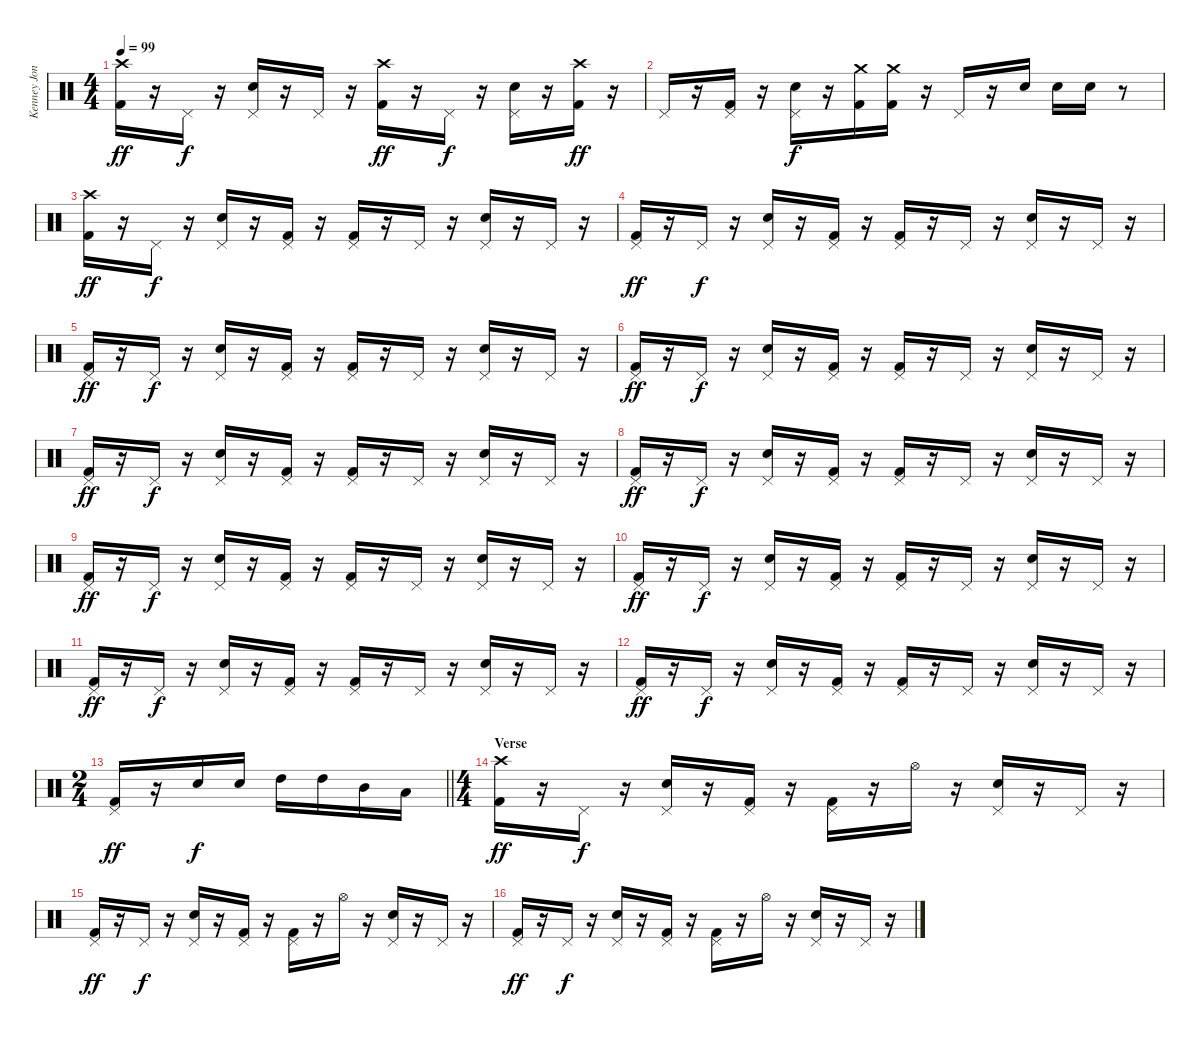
\track ("Kenney Jones" "Kenney Jon") {instrument percussion}
\staff {score}
\articulation defaults
\ts (4 4)
\tempo 99
\clef neutral
\ks c
("Crash high (hit)" "Kick (hit) 2").16{dy ff} r.16 "Pedal Hi-Hat (hit)".16{dy f} r.16 ("Pedal Hi-Hat (hit)" "Snare (hit) 2").16 r.16 "Pedal Hi-Hat (hit)".16 r.16 ("Crash high (hit)" "Kick (hit) 2").16{dy ff} r.16 "Pedal Hi-Hat (hit)".16{dy f} r.16 ("Pedal Hi-Hat (hit)" "Snare (hit) 2").16 r.16 ("Crash high (hit)" "Kick (hit) 2").16{dy ff} r.16 |
"Pedal Hi-Hat (hit)".16 r.16 ("Pedal Hi-Hat (hit)" "Kick (hit) 2").16 r.16 ("Pedal Hi-Hat (hit)" "Snare (hit) 2").16{dy f} r.16 ("Crash medium (hit)" "Kick (hit) 2").16 ("Crash medium (hit)" "Kick (hit) 2").16 r.16 "Pedal Hi-Hat (hit)".16 r.16 "Snare (hit) 2".16 "Snare (hit) 2".16 "Snare (hit) 2".16 r.8 |
("Crash high (hit)" "Kick (hit) 2").16{dy ff} r.16 "Pedal Hi-Hat (hit)".16{dy f} r.16 ("Pedal Hi-Hat (hit)" "Snare (hit) 2").16 r.16 ("Pedal Hi-Hat (hit)" "Kick (hit) 2").16 r.16 ("Pedal Hi-Hat (hit)" "Kick (hit) 2").16 r.16 "Pedal Hi-Hat (hit)".16 r.16 ("Pedal Hi-Hat (hit)" "Snare (hit) 2").16 r.16 "Pedal Hi-Hat (hit)".16 r.16 |
("Pedal Hi-Hat (hit)" "Kick (hit) 2").16{dy ff} r.16 "Pedal Hi-Hat (hit)".16{dy f} r.16 ("Pedal Hi-Hat (hit)" "Snare (hit) 2").16 r.16 ("Pedal Hi-Hat (hit)" "Kick (hit) 2").16 r.16 ("Pedal Hi-Hat (hit)" "Kick (hit) 2").16 r.16 "Pedal Hi-Hat (hit)".16 r.16 ("Pedal Hi-Hat (hit)" "Snare (hit) 2").16 r.16 "Pedal Hi-Hat (hit)".16 r.16 |
("Pedal Hi-Hat (hit)" "Kick (hit) 2").16{dy ff} r.16 "Pedal Hi-Hat (hit)".16{dy f} r.16 ("Pedal Hi-Hat (hit)" "Snare (hit) 2").16 r.16 ("Pedal Hi-Hat (hit)" "Kick (hit) 2").16 r.16 ("Pedal Hi-Hat (hit)" "Kick (hit) 2").16 r.16 "Pedal Hi-Hat (hit)".16 r.16 ("Pedal Hi-Hat (hit)" "Snare (hit) 2").16 r.16 "Pedal Hi-Hat (hit)".16 r.16 |
("Pedal Hi-Hat (hit)" "Kick (hit) 2").16{dy ff} r.16 "Pedal Hi-Hat (hit)".16{dy f} r.16 ("Pedal Hi-Hat (hit)" "Snare (hit) 2").16 r.16 ("Pedal Hi-Hat (hit)" "Kick (hit) 2").16 r.16 ("Pedal Hi-Hat (hit)" "Kick (hit) 2").16 r.16 "Pedal Hi-Hat (hit)".16 r.16 ("Pedal Hi-Hat (hit)" "Snare (hit) 2").16 r.16 "Pedal Hi-Hat (hit)".16 r.16 |
("Pedal Hi-Hat (hit)" "Kick (hit) 2").16{dy ff} r.16 "Pedal Hi-Hat (hit)".16{dy f} r.16 ("Pedal Hi-Hat (hit)" "Snare (hit) 2").16 r.16 ("Pedal Hi-Hat (hit)" "Kick (hit) 2").16 r.16 ("Pedal Hi-Hat (hit)" "Kick (hit) 2").16 r.16 "Pedal Hi-Hat (hit)".16 r.16 ("Pedal Hi-Hat (hit)" "Snare (hit) 2").16 r.16 "Pedal Hi-Hat (hit)".16 r.16 |
("Pedal Hi-Hat (hit)" "Kick (hit) 2").16{dy ff} r.16 "Pedal Hi-Hat (hit)".16{dy f} r.16 ("Pedal Hi-Hat (hit)" "Snare (hit) 2").16 r.16 ("Pedal Hi-Hat (hit)" "Kick (hit) 2").16 r.16 ("Pedal Hi-Hat (hit)" "Kick (hit) 2").16 r.16 "Pedal Hi-Hat (hit)".16 r.16 ("Pedal Hi-Hat (hit)" "Snare (hit) 2").16 r.16 "Pedal Hi-Hat (hit)".16 r.16 |
("Pedal Hi-Hat (hit)" "Kick (hit) 2").16{dy ff} r.16 "Pedal Hi-Hat (hit)".16{dy f} r.16 ("Pedal Hi-Hat (hit)" "Snare (hit) 2").16 r.16 ("Pedal Hi-Hat (hit)" "Kick (hit) 2").16 r.16 ("Pedal Hi-Hat (hit)" "Kick (hit) 2").16 r.16 "Pedal Hi-Hat (hit)".16 r.16 ("Pedal Hi-Hat (hit)" "Snare (hit) 2").16 r.16 "Pedal Hi-Hat (hit)".16 r.16 |
("Pedal Hi-Hat (hit)" "Kick (hit) 2").16{dy ff} r.16 "Pedal Hi-Hat (hit)".16{dy f} r.16 ("Pedal Hi-Hat (hit)" "Snare (hit) 2").16 r.16 ("Pedal Hi-Hat (hit)" "Kick (hit) 2").16 r.16 ("Pedal Hi-Hat (hit)" "Kick (hit) 2").16 r.16 "Pedal Hi-Hat (hit)".16 r.16 ("Pedal Hi-Hat (hit)" "Snare (hit) 2").16 r.16 "Pedal Hi-Hat (hit)".16 r.16 |
("Pedal Hi-Hat (hit)" "Kick (hit) 2").16{dy ff} r.16 "Pedal Hi-Hat (hit)".16{dy f} r.16 ("Pedal Hi-Hat (hit)" "Snare (hit) 2").16 r.16 ("Pedal Hi-Hat (hit)" "Kick (hit) 2").16 r.16 ("Pedal Hi-Hat (hit)" "Kick (hit) 2").16 r.16 "Pedal Hi-Hat (hit)".16 r.16 ("Pedal Hi-Hat (hit)" "Snare (hit) 2").16 r.16 "Pedal Hi-Hat (hit)".16 r.16 |
("Pedal Hi-Hat (hit)" "Kick (hit) 2").16{dy ff} r.16 "Pedal Hi-Hat (hit)".16{dy f} r.16 ("Pedal Hi-Hat (hit)" "Snare (hit) 2").16 r.16 ("Pedal Hi-Hat (hit)" "Kick (hit) 2").16 r.16 ("Pedal Hi-Hat (hit)" "Kick (hit) 2").16 r.16 "Pedal Hi-Hat (hit)".16 r.16 ("Pedal Hi-Hat (hit)" "Snare (hit) 2").16 r.16 "Pedal Hi-Hat (hit)".16 r.16 |
\ts (2 4)
\barLineRight lightlight
("Pedal Hi-Hat (hit)" "Kick (hit) 2").16{dy ff} r.16 "Snare (hit) 2".16{dy f} "Snare (hit) 2".16 "High Tom (hit)".16 "High Tom (hit)".16 "Mid Tom (hit)".16 "Low Tom (hit)".16 |
\ts (4 4)
\section ("" "Verse")
("Crash high (hit)" "Kick (hit) 2").16{dy ff} r.16 "Pedal Hi-Hat (hit)".16{dy f} r.16 ("Pedal Hi-Hat (hit)" "Snare (hit) 2").16 r.16 ("Pedal Hi-Hat (hit)" "Kick (hit) 2").16 r.16 ("Pedal Hi-Hat (hit)" "Kick (hit) 2").16 r.16 "Hi-Hat (open)".16 r.16 ("Pedal Hi-Hat (hit)" "Snare (hit) 2").16 r.16 "Pedal Hi-Hat (hit)".16 r.16 |
("Pedal Hi-Hat (hit)" "Kick (hit) 2").16{dy ff} r.16 "Pedal Hi-Hat (hit)".16{dy f} r.16 ("Pedal Hi-Hat (hit)" "Snare (hit) 2").16 r.16 ("Pedal Hi-Hat (hit)" "Kick (hit) 2").16 r.16 ("Pedal Hi-Hat (hit)" "Kick (hit) 2").16 r.16 "Hi-Hat (open)".16 r.16 ("Pedal Hi-Hat (hit)" "Snare (hit) 2").16 r.16 "Pedal Hi-Hat (hit)".16 r.16 |
("Pedal Hi-Hat (hit)" "Kick (hit) 2").16{dy ff} r.16 "Pedal Hi-Hat (hit)".16{dy f} r.16 ("Pedal Hi-Hat (hit)" "Snare (hit) 2").16 r.16 ("Pedal Hi-Hat (hit)" "Kick (hit) 2").16 r.16 ("Pedal Hi-Hat (hit)" "Kick (hit) 2").16 r.16 "Hi-Hat (open)".16 r.16 ("Pedal Hi-Hat (hit)" "Snare (hit) 2").16 r.16 "Pedal Hi-Hat (hit)".16 r.16
